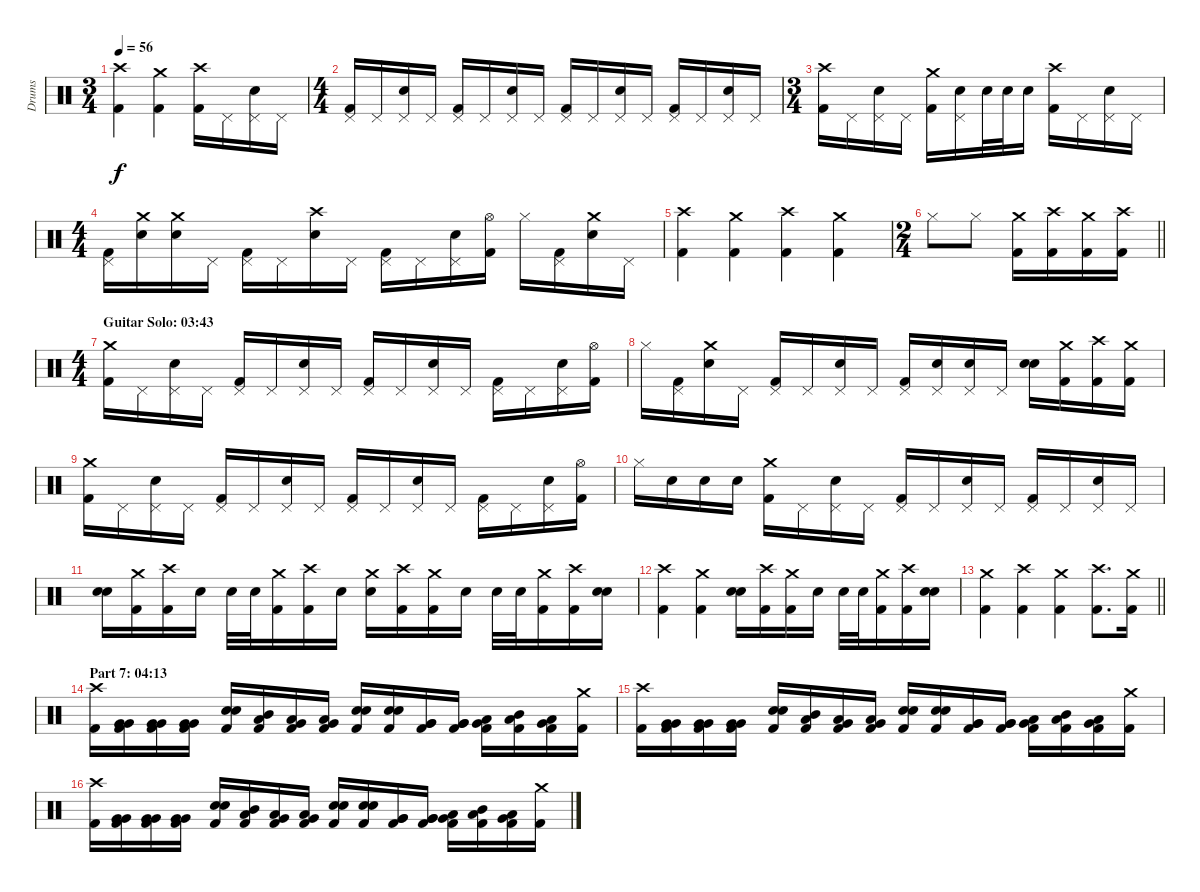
\track ("Drums" "Drums") {instrument percussion}
\staff {score}
\articulation defaults
\ts (3 4)
\tempo 56
\clef neutral
\ks c
("Crash high (hit)" "Kick (hit) 2").4{dy f} ("Crash medium (hit)" "Kick (hit) 2").4 ("Crash high (hit)" "Kick (hit) 2").16 "Pedal Hi-Hat (hit)".16 ("Pedal Hi-Hat (hit)" "Electric Snare (hit)").16 "Pedal Hi-Hat (hit)".16 |
\ts (4 4)
("Pedal Hi-Hat (hit)" "Kick (hit) 2").16 "Pedal Hi-Hat (hit)".16 ("Pedal Hi-Hat (hit)" "Electric Snare (hit)").16 "Pedal Hi-Hat (hit)".16 ("Pedal Hi-Hat (hit)" "Kick (hit) 2").16 "Pedal Hi-Hat (hit)".16 ("Pedal Hi-Hat (hit)" "Electric Snare (hit)").16 "Pedal Hi-Hat (hit)".16 ("Pedal Hi-Hat (hit)" "Kick (hit) 2").16 "Pedal Hi-Hat (hit)".16 ("Pedal Hi-Hat (hit)" "Electric Snare (hit)").16 "Pedal Hi-Hat (hit)".16 ("Pedal Hi-Hat (hit)" "Kick (hit) 2").16 "Pedal Hi-Hat (hit)".16 ("Pedal Hi-Hat (hit)" "Electric Snare (hit)").16 "Pedal Hi-Hat (hit)".16 |
\ts (3 4)
("Crash high (hit)" "Kick (hit) 2").16 "Pedal Hi-Hat (hit)".16 ("Pedal Hi-Hat (hit)" "Electric Snare (hit)").16 "Pedal Hi-Hat (hit)".16 ("Crash medium (hit)" "Kick (hit) 2").16 ("Pedal Hi-Hat (hit)" "Electric Snare (hit)").16 "Electric Snare (hit)".32 "Electric Snare (hit)".32 "Electric Snare (hit)".16 ("Crash high (hit)" "Kick (hit) 2").16 "Pedal Hi-Hat (hit)".16 ("Pedal Hi-Hat (hit)" "Electric Snare (hit)").16 "Pedal Hi-Hat (hit)".16 |
\ts (4 4)
("Pedal Hi-Hat (hit)" "Kick (hit) 2").16 ("Crash medium (hit)" "Electric Snare (hit)").16 ("Crash medium (hit)" "Electric Snare (hit)").16 "Pedal Hi-Hat (hit)".16 ("Pedal Hi-Hat (hit)" "Kick (hit) 2").16 "Pedal Hi-Hat (hit)".16 ("Crash high (hit)" "Electric Snare (hit)").16 "Pedal Hi-Hat (hit)".16 ("Pedal Hi-Hat (hit)" "Kick (hit) 2").16 "Pedal Hi-Hat (hit)".16 ("Pedal Hi-Hat (hit)" "Electric Snare (hit)").16 ("Hi-Hat (open)" "Kick (hit) 2").16 "Hi-Hat (closed)".16 ("Pedal Hi-Hat (hit)" "Kick (hit) 2").16 ("Crash medium (hit)" "Electric Snare (hit)").16 "Pedal Hi-Hat (hit)".16 |
("Crash high (hit)" "Kick (hit) 2").4 ("Crash medium (hit)" "Kick (hit) 2").4 ("Crash high (hit)" "Kick (hit) 2").4 ("Crash medium (hit)" "Kick (hit) 2").4 |
\ts (2 4)
\barLineRight lightlight "Hi-Hat (closed)".8 "Hi-Hat (closed)".8
("Crash medium (hit)" "Kick (hit) 2").16 ("Crash high (hit)" "Kick (hit) 2").16 ("Crash medium (hit)" "Kick (hit) 2").16 ("Crash high (hit)" "Kick (hit) 2").16 |
\ts (4 4)
\section ("" "Guitar Solo: 03:43")
("Crash medium (hit)" "Kick (hit) 2").16 "Pedal Hi-Hat (hit)".16 ("Pedal Hi-Hat (hit)" "Electric Snare (hit)").16 "Pedal Hi-Hat (hit)".16 ("Pedal Hi-Hat (hit)" "Kick (hit) 2").16 "Pedal Hi-Hat (hit)".16 ("Pedal Hi-Hat (hit)" "Electric Snare (hit)").16 "Pedal Hi-Hat (hit)".16 ("Pedal Hi-Hat (hit)" "Kick (hit) 2").16 "Pedal Hi-Hat (hit)".16 ("Pedal Hi-Hat (hit)" "Electric Snare (hit)").16 "Pedal Hi-Hat (hit)".16 ("Pedal Hi-Hat (hit)" "Kick (hit) 2").16 "Pedal Hi-Hat (hit)".16 ("Pedal Hi-Hat (hit)" "Electric Snare (hit)").16 ("Hi-Hat (open)" "Kick (hit) 2").16 |
"Hi-Hat (closed)".16 ("Pedal Hi-Hat (hit)" "Kick (hit) 2").16 ("Crash medium (hit)" "Electric Snare (hit)").16 "Pedal Hi-Hat (hit)".16 ("Pedal Hi-Hat (hit)" "Kick (hit) 2").16 "Pedal Hi-Hat (hit)".16 ("Pedal Hi-Hat (hit)" "Electric Snare (hit)").16 "Pedal Hi-Hat (hit)".16 ("Pedal Hi-Hat (hit)" "Kick (hit) 2").16 ("Pedal Hi-Hat (hit)" "Electric Snare (hit)").16 ("Pedal Hi-Hat (hit)" "Electric Snare (hit)").16 "Pedal Hi-Hat (hit)".16 ("Electric Snare (hit)" "Electric Snare (hit)").16{bd 60} ("Crash medium (hit)" "Kick (hit) 2").16 ("Crash high (hit)" "Kick (hit) 2").16 ("Crash medium (hit)" "Kick (hit) 2").16 |
("Crash medium (hit)" "Kick (hit) 2").16 "Pedal Hi-Hat (hit)".16 ("Pedal Hi-Hat (hit)" "Electric Snare (hit)").16 "Pedal Hi-Hat (hit)".16 ("Pedal Hi-Hat (hit)" "Kick (hit) 2").16 "Pedal Hi-Hat (hit)".16 ("Pedal Hi-Hat (hit)" "Electric Snare (hit)").16 "Pedal Hi-Hat (hit)".16 ("Pedal Hi-Hat (hit)" "Kick (hit) 2").16 "Pedal Hi-Hat (hit)".16 ("Pedal Hi-Hat (hit)" "Electric Snare (hit)").16 "Pedal Hi-Hat (hit)".16 ("Pedal Hi-Hat (hit)" "Kick (hit) 2").16 "Pedal Hi-Hat (hit)".16 ("Pedal Hi-Hat (hit)" "Electric Snare (hit)").16 ("Hi-Hat (open)" "Kick (hit) 2").16 |
"Hi-Hat (closed)".16 "Electric Snare (hit)".16 "Electric Snare (hit)".16 "Electric Snare (hit)".16 ("Crash medium (hit)" "Kick (hit) 2").16 "Pedal Hi-Hat (hit)".16 ("Pedal Hi-Hat (hit)" "Electric Snare (hit)").16 "Pedal Hi-Hat (hit)".16 ("Pedal Hi-Hat (hit)" "Kick (hit) 2").16 "Pedal Hi-Hat (hit)".16 ("Pedal Hi-Hat (hit)" "Electric Snare (hit)").16 "Pedal Hi-Hat (hit)".16 ("Pedal Hi-Hat (hit)" "Kick (hit) 2").16 "Pedal Hi-Hat (hit)".16 ("Pedal Hi-Hat (hit)" "Electric Snare (hit)").16 "Pedal Hi-Hat (hit)".16 |
("Electric Snare (hit)" "Electric Snare (hit)").16{bd 60} ("Crash medium (hit)" "Kick (hit) 2").16 ("Crash high (hit)" "Kick (hit) 2").16 "Electric Snare (hit)".16 "Electric Snare (hit)".32 "Electric Snare (hit)".32 ("Crash medium (hit)" "Kick (hit) 2").16 ("Crash high (hit)" "Kick (hit) 2").16 "Electric Snare (hit)".16 ("Crash medium (hit)" "Electric Snare (hit)").16 ("Crash high (hit)" "Kick (hit) 2").16 ("Crash medium (hit)" "Kick (hit) 2").16 "Electric Snare (hit)".16 "Electric Snare (hit)".32 "Electric Snare (hit)".32 ("Crash medium (hit)" "Kick (hit) 2").16 ("Crash high (hit)" "Kick (hit) 2").16 ("Electric Snare (hit)" "Electric Snare (hit)").16{bd 60} |
("Crash high (hit)" "Kick (hit) 2").4 ("Crash medium (hit)" "Kick (hit) 2").4 ("Electric Snare (hit)" "Electric Snare (hit)").16{bd 60} ("Crash high (hit)" "Kick (hit) 2").16 ("Crash medium (hit)" "Kick (hit) 2").16 "Electric Snare (hit)".16 "Electric Snare (hit)".32 "Electric Snare (hit)".32 ("Crash medium (hit)" "Kick (hit) 2").16 ("Crash high (hit)" "Kick (hit) 2").16 ("Electric Snare (hit)" "Electric Snare (hit)").16{bd 60} |
\barLineRight lightlight
("Crash medium (hit)" "Kick (hit) 2").4 ("Crash high (hit)" "Kick (hit) 2").4 ("Crash medium (hit)" "Kick (hit) 2").4 ("Crash high (hit)" "Kick (hit) 2").8{d} ("Crash medium (hit)" "Kick (hit) 2").16 |
\section ("" "Part 7: 04:13")
("Crash high (hit)" "Kick (hit) 2").16 ("Very Low Tom (hit)" "Very Low Tom (hit)" "Kick (hit) 2").16 ("Very Low Tom (hit)" "Very Low Tom (hit)" "Kick (hit) 2").16 ("Very Low Tom (hit)" "Very Low Tom (hit)" "Kick (hit) 2").16 ("Electric Snare (hit)" "Electric Snare (hit)" "Kick (hit) 2").16{bd 30} ("Mid Tom (hit)" "Low Tom (hit)" "Kick (hit) 2").16 ("Low Tom (hit)" "Very Low Tom (hit)" "Kick (hit) 2").16 ("Low Tom (hit)" "Very Low Tom (hit)" "Kick (hit) 2").16 ("Electric Snare (hit)" "Electric Snare (hit)" "Kick (hit) 2").16 ("Electric Snare (hit)" "Electric Snare (hit)" "Kick (hit) 2").16 ("Very Low Tom (hit)" "Very Low Tom (hit)" "Kick (hit) 2").16 ("Very Low Tom (hit)" "Very Low Tom (hit)" "Kick (hit) 2").16 ("Very Low Tom (hit)" "Low Floor Tom (hit)" "Kick (hit) 2").16 ("Mid Tom (hit)" "Low Tom (hit)" "Kick (hit) 2").16 ("Low Tom (hit)" "Very Low Tom (hit)" "Kick (hit) 2").16 ("Crash medium (hit)" "Kick (hit) 2").16 |
("Crash high (hit)" "Kick (hit) 2").16 ("Very Low Tom (hit)" "Very Low Tom (hit)" "Kick (hit) 2").16 ("Very Low Tom (hit)" "Very Low Tom (hit)" "Kick (hit) 2").16 ("Very Low Tom (hit)" "Very Low Tom (hit)" "Kick (hit) 2").16 ("Electric Snare (hit)" "Electric Snare (hit)" "Kick (hit) 2").16{bd 30} ("Mid Tom (hit)" "Low Tom (hit)" "Kick (hit) 2").16 ("Low Tom (hit)" "Very Low Tom (hit)" "Kick (hit) 2").16 ("Low Tom (hit)" "Very Low Tom (hit)" "Kick (hit) 2").16 ("Electric Snare (hit)" "Electric Snare (hit)" "Kick (hit) 2").16 ("Electric Snare (hit)" "Electric Snare (hit)" "Kick (hit) 2").16 ("Very Low Tom (hit)" "Very Low Tom (hit)" "Kick (hit) 2").16 ("Very Low Tom (hit)" "Very Low Tom (hit)" "Kick (hit) 2").16 ("Very Low Tom (hit)" "Low Floor Tom (hit)" "Kick (hit) 2").16 ("Mid Tom (hit)" "Low Tom (hit)" "Kick (hit) 2").16 ("Low Tom (hit)" "Very Low Tom (hit)" "Kick (hit) 2").16 ("Crash medium (hit)" "Kick (hit) 2").16 |
("Crash high (hit)" "Kick (hit) 2").16 ("Very Low Tom (hit)" "Very Low Tom (hit)" "Kick (hit) 2").16 ("Very Low Tom (hit)" "Very Low Tom (hit)" "Kick (hit) 2").16 ("Very Low Tom (hit)" "Very Low Tom (hit)" "Kick (hit) 2").16 ("Electric Snare (hit)" "Electric Snare (hit)" "Kick (hit) 2").16{bd 30} ("Mid Tom (hit)" "Low Tom (hit)" "Kick (hit) 2").16 ("Low Tom (hit)" "Very Low Tom (hit)" "Kick (hit) 2").16 ("Low Tom (hit)" "Very Low Tom (hit)" "Kick (hit) 2").16 ("Electric Snare (hit)" "Electric Snare (hit)" "Kick (hit) 2").16 ("Electric Snare (hit)" "Electric Snare (hit)" "Kick (hit) 2").16 ("Very Low Tom (hit)" "Very Low Tom (hit)" "Kick (hit) 2").16 ("Very Low Tom (hit)" "Very Low Tom (hit)" "Kick (hit) 2").16 ("Very Low Tom (hit)" "Low Floor Tom (hit)" "Kick (hit) 2").16 ("Mid Tom (hit)" "Low Tom (hit)" "Kick (hit) 2").16 ("Low Tom (hit)" "Very Low Tom (hit)" "Kick (hit) 2").16 ("Crash medium (hit)" "Kick (hit) 2").16
